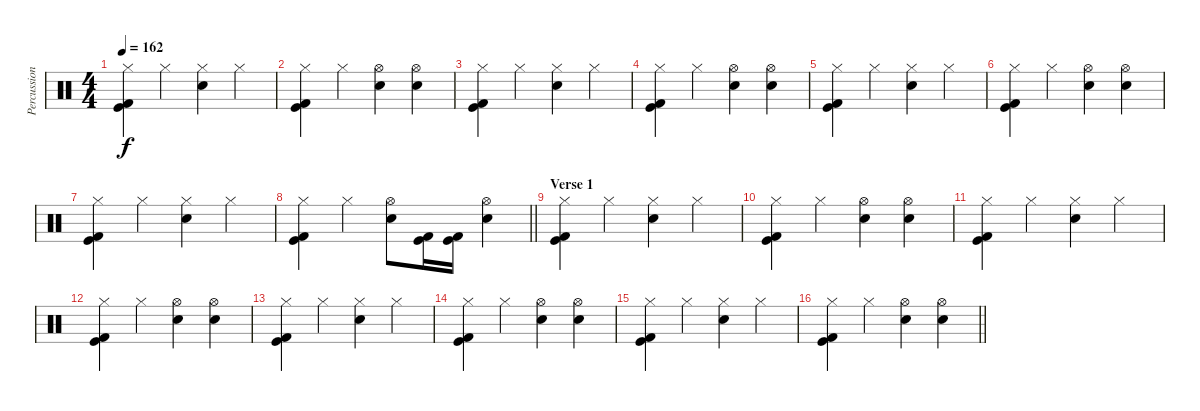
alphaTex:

\track ("Percussion" "Percussion") {instrument percussion}
\staff {score}
\articulation defaults
\ts (4 4)
\section ("" "")
\tempo 162
\clef neutral
\ks c
("Hi-Hat (closed)" "Kick (hit)" "Kick (hit) 2").4{dy f} "Hi-Hat (closed)".4 ("Hi-Hat (closed)" "Electric Snare (hit)").4 "Hi-Hat (closed)".4 |
("Hi-Hat (closed)" "Kick (hit)" "Kick (hit) 2").4 "Hi-Hat (closed)".4 ("Hi-Hat (open)" "Electric Snare (hit)").4 ("Hi-Hat (open)" "Electric Snare (hit)").4 |
("Hi-Hat (closed)" "Kick (hit)" "Kick (hit) 2").4 "Hi-Hat (closed)".4 ("Hi-Hat (closed)" "Electric Snare (hit)").4 "Hi-Hat (closed)".4 |
("Hi-Hat (closed)" "Kick (hit)" "Kick (hit) 2").4 "Hi-Hat (closed)".4 ("Hi-Hat (open)" "Electric Snare (hit)").4 ("Hi-Hat (open)" "Electric Snare (hit)").4 |
("Hi-Hat (closed)" "Kick (hit)" "Kick (hit) 2").4 "Hi-Hat (closed)".4 ("Hi-Hat (closed)" "Electric Snare (hit)").4 "Hi-Hat (closed)".4 |
("Hi-Hat (closed)" "Kick (hit)" "Kick (hit) 2").4 "Hi-Hat (closed)".4 ("Hi-Hat (open)" "Electric Snare (hit)").4 ("Hi-Hat (open)" "Electric Snare (hit)").4 |
("Hi-Hat (closed)" "Kick (hit)" "Kick (hit) 2").4 "Hi-Hat (closed)".4 ("Hi-Hat (closed)" "Electric Snare (hit)").4 "Hi-Hat (closed)".4 |
\barLineRight lightlight
("Hi-Hat (closed)" "Kick (hit)" "Kick (hit) 2").4 "Hi-Hat (closed)".4 ("Hi-Hat (open)" "Electric Snare (hit)").8 ("Kick (hit)" "Kick (hit) 2").16 ("Kick (hit)" "Kick (hit) 2").16 ("Hi-Hat (open)" "Electric Snare (hit)").4 |
\section ("" "Verse 1")
("Hi-Hat (closed)" "Kick (hit)" "Kick (hit) 2").4 "Hi-Hat (closed)".4 ("Hi-Hat (closed)" "Electric Snare (hit)").4 "Hi-Hat (closed)".4 |
("Hi-Hat (closed)" "Kick (hit)" "Kick (hit) 2").4 "Hi-Hat (closed)".4 ("Hi-Hat (open)" "Electric Snare (hit)").4 ("Hi-Hat (open)" "Electric Snare (hit)").4 |
("Hi-Hat (closed)" "Kick (hit)" "Kick (hit) 2").4 "Hi-Hat (closed)".4 ("Hi-Hat (closed)" "Electric Snare (hit)").4 "Hi-Hat (closed)".4 |
("Hi-Hat (closed)" "Kick (hit)" "Kick (hit) 2").4 "Hi-Hat (closed)".4 ("Hi-Hat (open)" "Electric Snare (hit)").4 ("Hi-Hat (open)" "Electric Snare (hit)").4 |
("Hi-Hat (closed)" "Kick (hit)" "Kick (hit) 2").4 "Hi-Hat (closed)".4 ("Hi-Hat (closed)" "Electric Snare (hit)").4 "Hi-Hat (closed)".4 |
("Hi-Hat (closed)" "Kick (hit)" "Kick (hit) 2").4 "Hi-Hat (closed)".4 ("Hi-Hat (open)" "Electric Snare (hit)").4 ("Hi-Hat (open)" "Electric Snare (hit)").4 |
("Hi-Hat (closed)" "Kick (hit)" "Kick (hit) 2").4 "Hi-Hat (closed)".4 ("Hi-Hat (closed)" "Electric Snare (hit)").4 "Hi-Hat (closed)".4 |
\barLineRight lightlight
("Hi-Hat (closed)" "Kick (hit)" "Kick (hit) 2").4 "Hi-Hat (closed)".4 ("Hi-Hat (open)" "Electric Snare (hit)").4 ("Hi-Hat (open)" "Electric Snare (hit)").4
